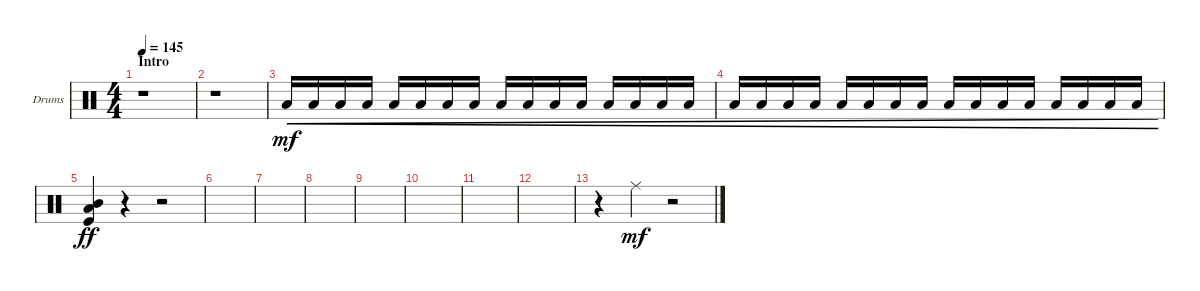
\defaultSystemsLayout 4
\bracketExtendMode groupsimilarinstruments
\firstSystemTrackNameOrientation horizontal
\otherSystemsTrackNameOrientation horizontal
\track ("Matt Uychich" "Drums") {instrument percussion}
\staff {score}
\articulation defaults
\ts (4 4)
\section ("" "Intro")
\tempo 145
\clef neutral
\scale
0.472222
\ks c
r.1{dy mf} |
\scale
0.263889 r.1 |
\scale
0.263889 "Low Tom (hit)".16{cre} "Low Tom (hit)".16{cre} "Low Tom (hit)".16{cre} "Low Tom (hit)".16{cre} "Low Tom (hit)".16{cre} "Low Tom (hit)".16{cre} "Low Tom (hit)".16{cre} "Low Tom (hit)".16{cre} "Low Tom (hit)".16{cre} "Low Tom (hit)".16{cre} "Low Tom (hit)".16{cre} "Low Tom (hit)".16{cre} "Low Tom (hit)".16{cre} "Low Tom (hit)".16{cre} "Low Tom (hit)".16{cre} "Low Tom (hit)".16{cre} |
\scale
0.333333 "Low Tom (hit)".16{cre} "Low Tom (hit)".16{cre} "Low Tom (hit)".16{cre} "Low Tom (hit)".16{cre} "Low Tom (hit)".16{cre} "Low Tom (hit)".16{cre} "Low Tom (hit)".16{cre} "Low Tom (hit)".16{cre} "Low Tom (hit)".16{cre} "Low Tom (hit)".16{cre} "Low Tom (hit)".16{cre} "Low Tom (hit)".16{cre} "Low Tom (hit)".16{cre} "Low Tom (hit)".16{cre} "Low Tom (hit)".16{cre} "Low Tom (hit)".16{cre} |
\scale
0.333333 ("Kick (hit)" "Low Tom (hit)" "Mid Tom (hit)").4{dy ff} r.4 r.2 |
\scale
0.333333 |
\scale
0.333333 |
\scale
0.333333 |
\scale
0.333333 |
\scale
0.333333 |
\scale
0.333333 |
\scale
0.333333 |
\scale
0.333333 r.4 "Ride (middle)".4{dy mf} r.2 |
\scale
0.333333 |
\scale
0.333333 |
\scale
0.333333
